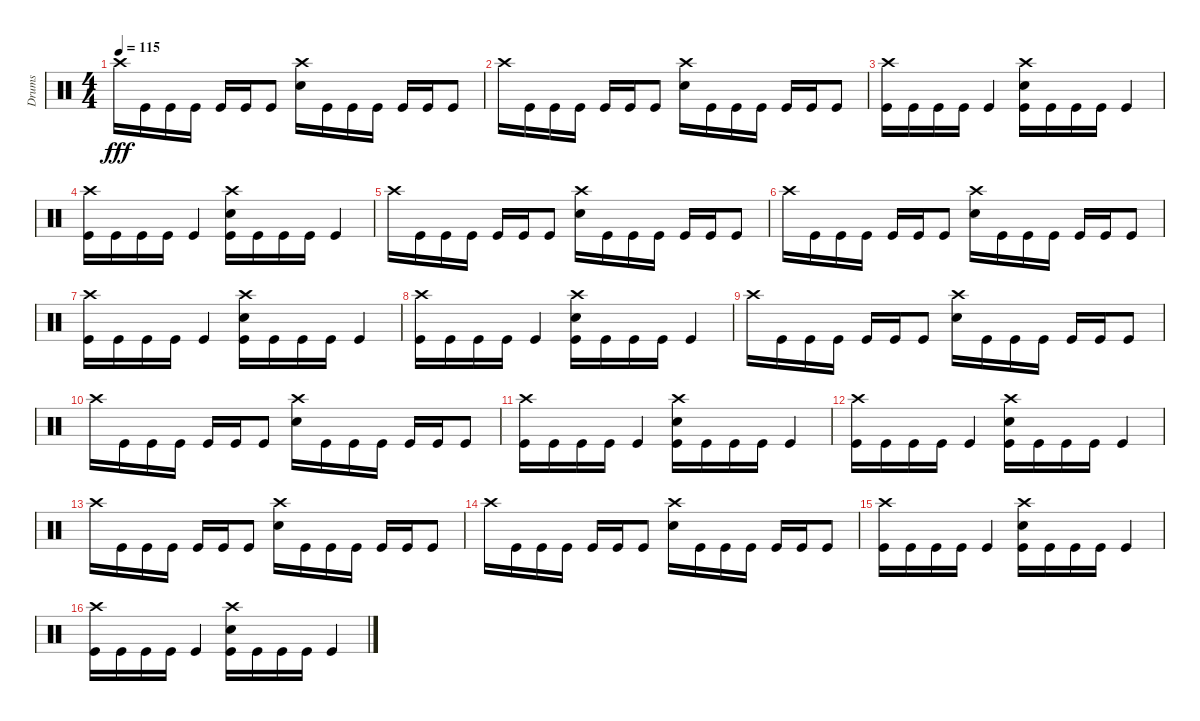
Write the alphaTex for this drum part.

\track ("Drums" "Drums") {instrument percussion}
\staff {score}
\articulation defaults
\ts (4 4)
\tempo 115
\clef neutral
\ks c "Crash high (hit)".16{dy fff} "Kick (hit)".16 "Kick (hit)".16 "Kick (hit)".16 "Kick (hit)".16 "Kick (hit)".16 "Kick (hit)".8
("Crash high (hit)" "Electric Snare (hit)").16 "Kick (hit)".16 "Kick (hit)".16 "Kick (hit)".16 "Kick (hit)".16 "Kick (hit)".16 "Kick (hit)".8 |
"Crash high (hit)".16 "Kick (hit)".16 "Kick (hit)".16 "Kick (hit)".16 "Kick (hit)".16 "Kick (hit)".16 "Kick (hit)".8 ("Crash high (hit)" "Electric Snare (hit)").16 "Kick (hit)".16 "Kick (hit)".16 "Kick (hit)".16 "Kick (hit)".16 "Kick (hit)".16 "Kick (hit)".8 |
("Crash high (hit)" "Kick (hit)").16 "Kick (hit)".16 "Kick (hit)".16 "Kick (hit)".16 "Kick (hit)".4 ("Crash high (hit)" "Electric Snare (hit)" "Kick (hit)").16 "Kick (hit)".16 "Kick (hit)".16 "Kick (hit)".16 "Kick (hit)".4 |
("Crash high (hit)" "Kick (hit)").16 "Kick (hit)".16 "Kick (hit)".16 "Kick (hit)".16 "Kick (hit)".4 ("Crash high (hit)" "Electric Snare (hit)" "Kick (hit)").16 "Kick (hit)".16 "Kick (hit)".16 "Kick (hit)".16 "Kick (hit)".4 |
"Crash high (hit)".16 "Kick (hit)".16 "Kick (hit)".16 "Kick (hit)".16 "Kick (hit)".16 "Kick (hit)".16 "Kick (hit)".8 ("Crash high (hit)" "Electric Snare (hit)").16 "Kick (hit)".16 "Kick (hit)".16 "Kick (hit)".16 "Kick (hit)".16 "Kick (hit)".16 "Kick (hit)".8 |
"Crash high (hit)".16 "Kick (hit)".16 "Kick (hit)".16 "Kick (hit)".16 "Kick (hit)".16 "Kick (hit)".16 "Kick (hit)".8 ("Crash high (hit)" "Electric Snare (hit)").16 "Kick (hit)".16 "Kick (hit)".16 "Kick (hit)".16 "Kick (hit)".16 "Kick (hit)".16 "Kick (hit)".8 |
("Crash high (hit)" "Kick (hit)").16 "Kick (hit)".16 "Kick (hit)".16 "Kick (hit)".16 "Kick (hit)".4 ("Crash high (hit)" "Electric Snare (hit)" "Kick (hit)").16 "Kick (hit)".16 "Kick (hit)".16 "Kick (hit)".16 "Kick (hit)".4 |
("Crash high (hit)" "Kick (hit)").16 "Kick (hit)".16 "Kick (hit)".16 "Kick (hit)".16 "Kick (hit)".4 ("Crash high (hit)" "Electric Snare (hit)" "Kick (hit)").16 "Kick (hit)".16 "Kick (hit)".16 "Kick (hit)".16 "Kick (hit)".4 |
"Crash high (hit)".16 "Kick (hit)".16 "Kick (hit)".16 "Kick (hit)".16 "Kick (hit)".16 "Kick (hit)".16 "Kick (hit)".8 ("Crash high (hit)" "Electric Snare (hit)").16 "Kick (hit)".16 "Kick (hit)".16 "Kick (hit)".16 "Kick (hit)".16 "Kick (hit)".16 "Kick (hit)".8 |
"Crash high (hit)".16 "Kick (hit)".16 "Kick (hit)".16 "Kick (hit)".16 "Kick (hit)".16 "Kick (hit)".16 "Kick (hit)".8 ("Crash high (hit)" "Electric Snare (hit)").16 "Kick (hit)".16 "Kick (hit)".16 "Kick (hit)".16 "Kick (hit)".16 "Kick (hit)".16 "Kick (hit)".8 |
("Crash high (hit)" "Kick (hit)").16 "Kick (hit)".16 "Kick (hit)".16 "Kick (hit)".16 "Kick (hit)".4 ("Crash high (hit)" "Electric Snare (hit)" "Kick (hit)").16 "Kick (hit)".16 "Kick (hit)".16 "Kick (hit)".16 "Kick (hit)".4 |
("Crash high (hit)" "Kick (hit)").16 "Kick (hit)".16 "Kick (hit)".16 "Kick (hit)".16 "Kick (hit)".4 ("Crash high (hit)" "Electric Snare (hit)" "Kick (hit)").16 "Kick (hit)".16 "Kick (hit)".16 "Kick (hit)".16 "Kick (hit)".4 |
"Crash high (hit)".16 "Kick (hit)".16 "Kick (hit)".16 "Kick (hit)".16 "Kick (hit)".16 "Kick (hit)".16 "Kick (hit)".8 ("Crash high (hit)" "Electric Snare (hit)").16 "Kick (hit)".16 "Kick (hit)".16 "Kick (hit)".16 "Kick (hit)".16 "Kick (hit)".16 "Kick (hit)".8 |
"Crash high (hit)".16 "Kick (hit)".16 "Kick (hit)".16 "Kick (hit)".16 "Kick (hit)".16 "Kick (hit)".16 "Kick (hit)".8 ("Crash high (hit)" "Electric Snare (hit)").16 "Kick (hit)".16 "Kick (hit)".16 "Kick (hit)".16 "Kick (hit)".16 "Kick (hit)".16 "Kick (hit)".8 |
("Crash high (hit)" "Kick (hit)").16 "Kick (hit)".16 "Kick (hit)".16 "Kick (hit)".16 "Kick (hit)".4 ("Crash high (hit)" "Electric Snare (hit)" "Kick (hit)").16 "Kick (hit)".16 "Kick (hit)".16 "Kick (hit)".16 "Kick (hit)".4 |
("Crash high (hit)" "Kick (hit)").16 "Kick (hit)".16 "Kick (hit)".16 "Kick (hit)".16 "Kick (hit)".4 ("Crash high (hit)" "Electric Snare (hit)" "Kick (hit)").16 "Kick (hit)".16 "Kick (hit)".16 "Kick (hit)".16 "Kick (hit)".4
